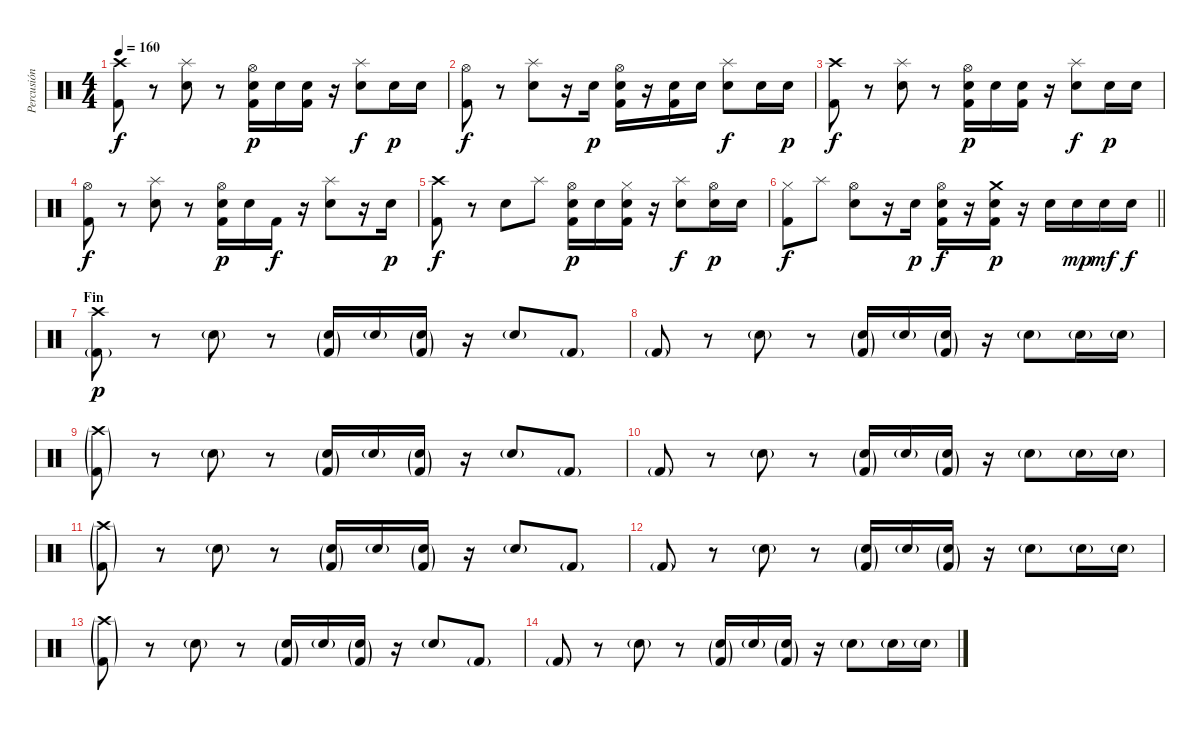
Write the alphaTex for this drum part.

\track ("Percusión" "Percusión") {instrument percussion}
\staff {score}
\articulation defaults
\ts (4 4)
\tempo 160
\clef neutral
\ks c
("Crash high (hit)" "Kick (hit) 2").8{dy f} r.8 ("Splash (hit)" "Electric Snare (hit)").8 r.8 ("Hi-Hat (open)" "Electric Snare (hit)" "Kick (hit) 2").16{dy p} "Electric Snare (hit)".16 ("Electric Snare (hit)" "Kick (hit) 2").16 r.16 ("Splash (hit)" "Electric Snare (hit)").8{dy f} "Electric Snare (hit)".16{dy p} "Electric Snare (hit)".16 |
("Hi-Hat (open)" "Kick (hit) 2").8{dy f} r.8 ("Splash (hit)" "Electric Snare (hit)").8 r.16 "Electric Snare (hit)".16{dy p} ("Hi-Hat (open)" "Electric Snare (hit)" "Kick (hit) 2").16 r.16 ("Electric Snare (hit)" "Kick (hit) 2").16 "Electric Snare (hit)".16 ("Splash (hit)" "Electric Snare (hit)").8{dy f} "Electric Snare (hit)".16 "Electric Snare (hit)".16{dy p} |
("Crash high (hit)" "Kick (hit) 2").8{dy f} r.8 ("Splash (hit)" "Electric Snare (hit)").8 r.8 ("Hi-Hat (open)" "Electric Snare (hit)" "Kick (hit) 2").16{dy p} "Electric Snare (hit)".16 ("Electric Snare (hit)" "Kick (hit) 2").16 r.16 ("Splash (hit)" "Electric Snare (hit)").8{dy f} "Electric Snare (hit)".16{dy p} "Electric Snare (hit)".16 |
("Hi-Hat (open)" "Kick (hit) 2").8{dy f} r.8 ("Splash (hit)" "Electric Snare (hit)").8 r.8 ("Hi-Hat (open)" "Electric Snare (hit)" "Kick (hit) 2").16{dy p} "Electric Snare (hit)".16 "Kick (hit) 2".16{dy f} r.16 ("Splash (hit)" "Electric Snare (hit)").8 r.16 "Electric Snare (hit)".16{dy p} |
("Crash high (hit)" "Kick (hit) 2").8{dy f} r.8 "Electric Snare (hit)".8 "Splash (hit)".8 ("Hi-Hat (open)" "Electric Snare (hit)" "Kick (hit) 2").16{dy p} "Electric Snare (hit)".16 ("Hi-Hat (closed)" "Electric Snare (hit)" "Kick (hit) 2").16 r.16 ("Splash (hit)" "Electric Snare (hit)").8{dy f} ("Hi-Hat (open)" "Electric Snare (hit)").16{dy p} "Electric Snare (hit)".16 |
\barLineRight lightlight
("Hi-Hat (closed)" "Kick (hit) 2").8{dy f} "Splash (hit)".8 ("Hi-Hat (open)" "Electric Snare (hit)").8 r.16 "Electric Snare (hit)".16{dy p} ("Hi-Hat (open)" "Electric Snare (hit)" "Kick (hit) 2").16{dy f} r.16 ("Crash medium (hit)" "Electric Snare (hit)" "Kick (hit) 2").16{dy p} r.16 "Electric Snare (hit)".16 "Electric Snare (hit)".16{dy mp} "Electric Snare (hit)".16{dy mf} "Electric Snare (hit)".16{dy f} |
\section ("" "Fin")
("Crash high (hit)" "Kick (hit) 2"{g}).8{dy p} r.8 "Electric Snare (hit)"{g}.8 r.8 ("Electric Snare (hit)"{g} "Kick (hit) 2"{g}).16 "Electric Snare (hit)"{g}.16 ("Electric Snare (hit)"{g} "Kick (hit) 2"{g}).16 r.16 "Electric Snare (hit)"{g}.8 "Kick (hit) 2"{g}.8 |
"Kick (hit) 2"{g}.8 r.8 "Electric Snare (hit)"{g}.8 r.8 ("Electric Snare (hit)"{g} "Kick (hit) 2"{g}).16 "Electric Snare (hit)"{g}.16 ("Electric Snare (hit)"{g} "Kick (hit) 2"{g}).16 r.16 "Electric Snare (hit)"{g}.8 "Hand Clap (hit)"{g}.16 "Electric Snare (hit)"{g}.16 |
("Crash high (hit)"{g} "Kick (hit) 2"{g}).8 r.8 "Electric Snare (hit)"{g}.8 r.8 ("Electric Snare (hit)"{g} "Kick (hit) 2"{g}).16 "Electric Snare (hit)"{g}.16 ("Electric Snare (hit)"{g} "Kick (hit) 2"{g}).16 r.16 "Electric Snare (hit)"{g}.8 "Kick (hit) 2"{g}.8 |
"Kick (hit) 2"{g}.8 r.8 "Electric Snare (hit)"{g}.8 r.8 ("Electric Snare (hit)"{g} "Kick (hit) 2"{g}).16 "Electric Snare (hit)"{g}.16 ("Electric Snare (hit)"{g} "Kick (hit) 2"{g}).16 r.16 "Electric Snare (hit)"{g}.8 "Hand Clap (hit)"{g}.16 "Electric Snare (hit)"{g}.16 |
("Crash high (hit)"{g} "Kick (hit) 2"{g}).8{volume 0} r.8 "Electric Snare (hit)"{g}.8 r.8 ("Electric Snare (hit)"{g} "Kick (hit) 2"{g}).16 "Electric Snare (hit)"{g}.16 ("Electric Snare (hit)"{g} "Kick (hit) 2"{g}).16 r.16 "Electric Snare (hit)"{g}.8 "Kick (hit) 2"{g}.8 |
"Kick (hit) 2"{g}.8 r.8 "Electric Snare (hit)"{g}.8 r.8 ("Electric Snare (hit)"{g} "Kick (hit) 2"{g}).16 "Electric Snare (hit)"{g}.16 ("Electric Snare (hit)"{g} "Kick (hit) 2"{g}).16 r.16 "Electric Snare (hit)"{g}.8 "Hand Clap (hit)"{g}.16 "Electric Snare (hit)"{g}.16 |
("Crash high (hit)"{g} "Kick (hit) 2"{g}).8 r.8 "Electric Snare (hit)"{g}.8 r.8 ("Electric Snare (hit)"{g} "Kick (hit) 2"{g}).16 "Electric Snare (hit)"{g}.16 ("Electric Snare (hit)"{g} "Kick (hit) 2"{g}).16 r.16 "Electric Snare (hit)"{g}.8 "Kick (hit) 2"{g}.8 |
"Kick (hit) 2"{g}.8 r.8 "Electric Snare (hit)"{g}.8 r.8 ("Electric Snare (hit)"{g} "Kick (hit) 2"{g}).16 "Electric Snare (hit)"{g}.16 ("Electric Snare (hit)"{g} "Kick (hit) 2"{g}).16 r.16 "Electric Snare (hit)"{g}.8 "Hand Clap (hit)"{g}.16 "Electric Snare (hit)"{g}.16
